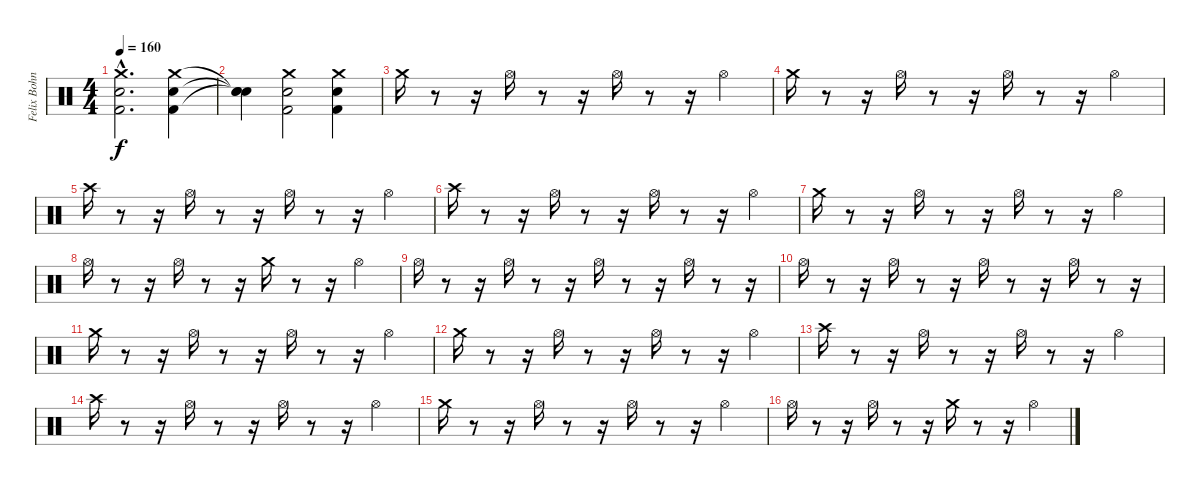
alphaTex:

\track ("Felix Bohnke" "Felix Bohn") {instrument percussion}
\staff {score}
\articulation defaults
\ts (4 4)
\tempo 160
\clef neutral
\ks c
("Crash medium (hit)"{hac} "Electric Snare (hit)"{hac} "Kick (hit) 2"{hac}).2{d dy f} ("Crash medium (hit)" "Electric Snare (hit)" "Kick (hit) 2").4 |
("Snare (hit)"{t} "Snare (hit)"{t} "Snare (hit)"{t}).4 ("Crash medium (hit)" "Electric Snare (hit)" "Kick (hit) 2").2 ("Crash medium (hit)" "Electric Snare (hit)" "Kick (hit) 2").4 |
"Crash medium (hit)".16 r.8 r.16 "Hi-Hat (open)".16 r.8 r.16 "Hi-Hat (open)".16 r.8 r.16 "Hi-Hat (open)".4 |
"Crash medium (hit)".16 r.8 r.16 "Hi-Hat (open)".16 r.8 r.16 "Hi-Hat (open)".16 r.8 r.16 "Hi-Hat (open)".4 |
"Crash high (hit)".16 r.8 r.16 "Hi-Hat (open)".16 r.8 r.16 "Hi-Hat (open)".16 r.8 r.16 "Hi-Hat (open)".4 |
"Crash high (hit)".16 r.8 r.16 "Hi-Hat (open)".16 r.8 r.16 "Hi-Hat (open)".16 r.8 r.16 "Hi-Hat (open)".4 |
"Crash medium (hit)".16 r.8 r.16 "Hi-Hat (open)".16 r.8 r.16 "Hi-Hat (open)".16 r.8 r.16 "Hi-Hat (open)".4 |
"Hi-Hat (open)".16 r.8 r.16 "Hi-Hat (open)".16 r.8 r.16 "Crash medium (hit)".16 r.8 r.16 "Hi-Hat (open)".4 |
"Hi-Hat (open)".16 r.8 r.16 "Hi-Hat (open)".16 r.8 r.16 "Hi-Hat (open)".16 r.8 r.16 "Hi-Hat (open)".16 r.8 r.16 |
"Hi-Hat (open)".16 r.8 r.16 "Hi-Hat (open)".16 r.8 r.16 "Hi-Hat (open)".16 r.8 r.16 "Hi-Hat (open)".16 r.8 r.16 |
"Crash medium (hit)".16 r.8 r.16 "Hi-Hat (open)".16 r.8 r.16 "Hi-Hat (open)".16 r.8 r.16 "Hi-Hat (open)".4 |
"Crash medium (hit)".16 r.8 r.16 "Hi-Hat (open)".16 r.8 r.16 "Hi-Hat (open)".16 r.8 r.16 "Hi-Hat (open)".4 |
"Crash high (hit)".16 r.8 r.16 "Hi-Hat (open)".16 r.8 r.16 "Hi-Hat (open)".16 r.8 r.16 "Hi-Hat (open)".4 |
"Crash high (hit)".16 r.8 r.16 "Hi-Hat (open)".16 r.8 r.16 "Hi-Hat (open)".16 r.8 r.16 "Hi-Hat (open)".4 |
"Crash medium (hit)".16 r.8 r.16 "Hi-Hat (open)".16 r.8 r.16 "Hi-Hat (open)".16 r.8 r.16 "Hi-Hat (open)".4 |
"Hi-Hat (open)".16 r.8 r.16 "Hi-Hat (open)".16 r.8 r.16 "Crash medium (hit)".16 r.8 r.16 "Hi-Hat (open)".4
